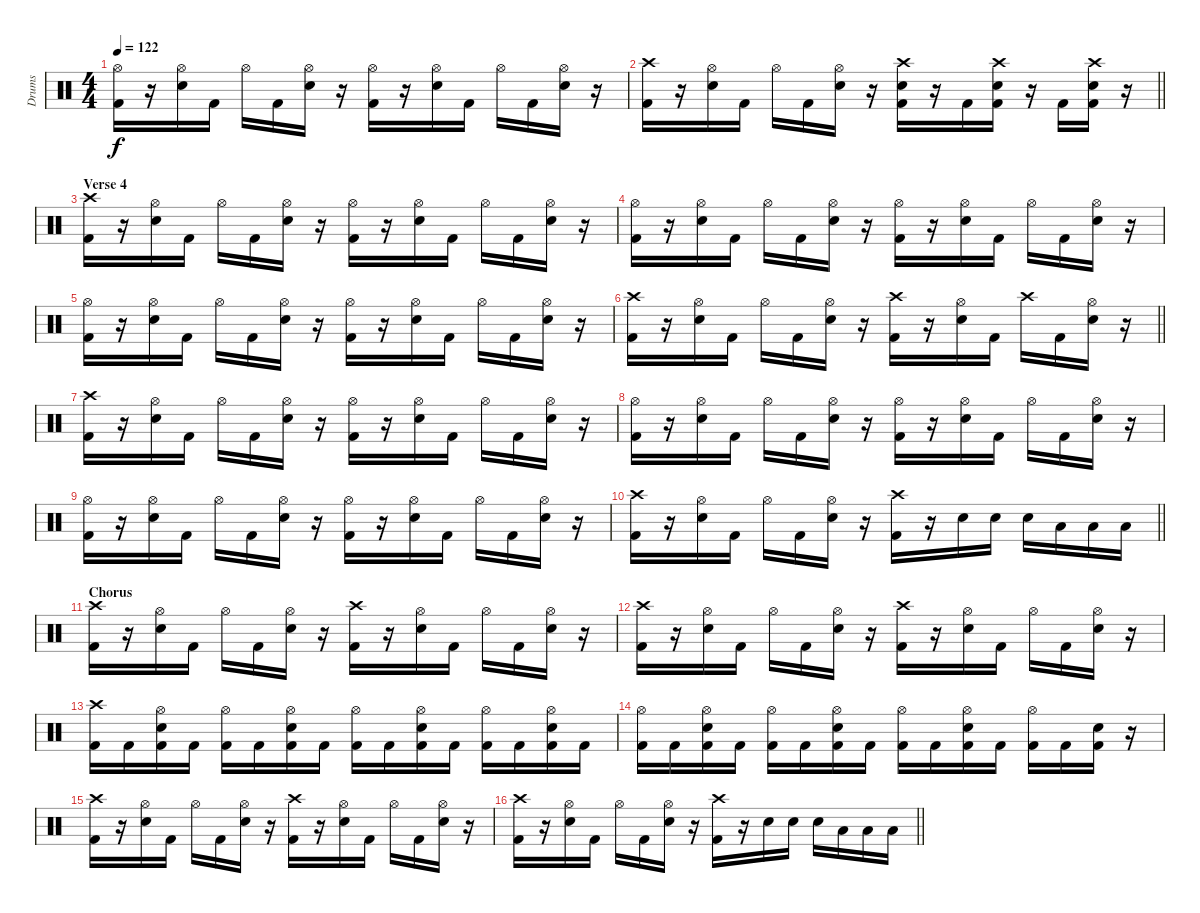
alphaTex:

\track ("Drums" "Drums") {instrument percussion}
\staff {score}
\articulation defaults
\ts (4 4)
\tempo 122
\clef neutral
\ks c
("Hi-Hat (open)" "Kick (hit) 2").16{dy f} r.16 ("Hi-Hat (open)" "Snare (hit) 2").16 "Kick (hit) 2".16 "Hi-Hat (open)".16 "Kick (hit) 2".16 ("Hi-Hat (open)" "Snare (hit) 2").16 r.16 ("Hi-Hat (open)" "Kick (hit) 2").16 r.16 ("Hi-Hat (open)" "Snare (hit) 2").16 "Kick (hit) 2".16 "Hi-Hat (open)".16 "Kick (hit) 2".16 ("Hi-Hat (open)" "Snare (hit) 2").16 r.16 |
\barLineRight lightlight
("Crash high (hit)" "Kick (hit) 2").16 r.16 ("Hi-Hat (open)" "Snare (hit) 2").16 "Kick (hit) 2".16 "Hi-Hat (open)".16 "Kick (hit) 2".16 ("Hi-Hat (open)" "Snare (hit) 2").16 r.16 ("Crash high (hit)" "Snare (hit) 2" "Kick (hit) 2").16 r.16 "Kick (hit) 2".16 ("Crash high (hit)" "Snare (hit) 2" "Kick (hit) 2").16 r.16 "Kick (hit) 2".16 ("Crash high (hit)" "Snare (hit) 2" "Kick (hit) 2").16 r.16 |
\section ("" "Verse 4")
("Crash high (hit)" "Kick (hit) 2").16 r.16 ("Hi-Hat (open)" "Snare (hit) 2").16 "Kick (hit) 2".16 "Hi-Hat (open)".16 "Kick (hit) 2".16 ("Hi-Hat (open)" "Snare (hit) 2").16 r.16 ("Hi-Hat (open)" "Kick (hit) 2").16 r.16 ("Hi-Hat (open)" "Snare (hit) 2").16 "Kick (hit) 2".16 "Hi-Hat (open)".16 "Kick (hit) 2".16 ("Hi-Hat (open)" "Snare (hit) 2").16 r.16 |
("Hi-Hat (open)" "Kick (hit) 2").16 r.16 ("Hi-Hat (open)" "Snare (hit) 2").16 "Kick (hit) 2".16 "Hi-Hat (open)".16 "Kick (hit) 2".16 ("Hi-Hat (open)" "Snare (hit) 2").16 r.16 ("Hi-Hat (open)" "Kick (hit) 2").16 r.16 ("Hi-Hat (open)" "Snare (hit) 2").16 "Kick (hit) 2".16 "Hi-Hat (open)".16 "Kick (hit) 2".16 ("Hi-Hat (open)" "Snare (hit) 2").16 r.16 |
("Hi-Hat (open)" "Kick (hit) 2").16 r.16 ("Hi-Hat (open)" "Snare (hit) 2").16 "Kick (hit) 2".16 "Hi-Hat (open)".16 "Kick (hit) 2".16 ("Hi-Hat (open)" "Snare (hit) 2").16 r.16 ("Hi-Hat (open)" "Kick (hit) 2").16 r.16 ("Hi-Hat (open)" "Snare (hit) 2").16 "Kick (hit) 2".16 "Hi-Hat (open)".16 "Kick (hit) 2".16 ("Hi-Hat (open)" "Snare (hit) 2").16 r.16 |
\barLineRight lightlight
("Crash high (hit)" "Kick (hit) 2").16 r.16 ("Hi-Hat (open)" "Snare (hit) 2").16 "Kick (hit) 2".16 "Hi-Hat (open)".16 "Kick (hit) 2".16 ("Hi-Hat (open)" "Snare (hit) 2").16 r.16 ("Crash high (hit)" "Kick (hit) 2").16 r.16 ("Hi-Hat (open)" "Snare (hit) 2").16 "Kick (hit) 2".16 "Crash high (hit)".16 "Kick (hit) 2".16 ("Hi-Hat (open)" "Snare (hit) 2").16 r.16 |
("Crash high (hit)" "Kick (hit) 2").16 r.16 ("Hi-Hat (open)" "Snare (hit) 2").16 "Kick (hit) 2".16 "Hi-Hat (open)".16 "Kick (hit) 2".16 ("Hi-Hat (open)" "Snare (hit) 2").16 r.16 ("Hi-Hat (open)" "Kick (hit) 2").16 r.16 ("Hi-Hat (open)" "Snare (hit) 2").16 "Kick (hit) 2".16 "Hi-Hat (open)".16 "Kick (hit) 2".16 ("Hi-Hat (open)" "Snare (hit) 2").16 r.16 |
("Hi-Hat (open)" "Kick (hit) 2").16 r.16 ("Hi-Hat (open)" "Snare (hit) 2").16 "Kick (hit) 2".16 "Hi-Hat (open)".16 "Kick (hit) 2".16 ("Hi-Hat (open)" "Snare (hit) 2").16 r.16 ("Hi-Hat (open)" "Kick (hit) 2").16 r.16 ("Hi-Hat (open)" "Snare (hit) 2").16 "Kick (hit) 2".16 "Hi-Hat (open)".16 "Kick (hit) 2".16 ("Hi-Hat (open)" "Snare (hit) 2").16 r.16 |
("Hi-Hat (open)" "Kick (hit) 2").16 r.16 ("Hi-Hat (open)" "Snare (hit) 2").16 "Kick (hit) 2".16 "Hi-Hat (open)".16 "Kick (hit) 2".16 ("Hi-Hat (open)" "Snare (hit) 2").16 r.16 ("Hi-Hat (open)" "Kick (hit) 2").16 r.16 ("Hi-Hat (open)" "Snare (hit) 2").16 "Kick (hit) 2".16 "Hi-Hat (open)".16 "Kick (hit) 2".16 ("Hi-Hat (open)" "Snare (hit) 2").16 r.16 |
\barLineRight lightlight
("Crash high (hit)" "Kick (hit) 2").16 r.16 ("Hi-Hat (open)" "Snare (hit) 2").16 "Kick (hit) 2".16 "Hi-Hat (open)".16 "Kick (hit) 2".16 ("Hi-Hat (open)" "Snare (hit) 2").16 r.16 ("Crash high (hit)" "Kick (hit) 2").16 r.16 "Snare (hit) 2".16 "Snare (hit) 2".16 "Snare (hit) 2".16 "Low Tom (hit)".16 "Low Tom (hit)".16 "Low Tom (hit)".16 |
\section ("" "Chorus")
("Crash high (hit)" "Kick (hit) 2").16 r.16 ("Hi-Hat (open)" "Snare (hit) 2").16 "Kick (hit) 2".16 "Hi-Hat (open)".16 "Kick (hit) 2".16 ("Hi-Hat (open)" "Snare (hit) 2").16 r.16 ("Crash high (hit)" "Kick (hit) 2").16 r.16 ("Hi-Hat (open)" "Snare (hit) 2").16 "Kick (hit) 2".16 "Hi-Hat (open)".16 "Kick (hit) 2".16 ("Hi-Hat (open)" "Snare (hit) 2").16 r.16 |
("Crash high (hit)" "Kick (hit) 2").16 r.16 ("Hi-Hat (open)" "Snare (hit) 2").16 "Kick (hit) 2".16 "Hi-Hat (open)".16 "Kick (hit) 2".16 ("Hi-Hat (open)" "Snare (hit) 2").16 r.16 ("Crash high (hit)" "Kick (hit) 2").16 r.16 ("Hi-Hat (open)" "Snare (hit) 2").16 "Kick (hit) 2".16 "Hi-Hat (open)".16 "Kick (hit) 2".16 ("Hi-Hat (open)" "Snare (hit) 2").16 r.16 |
("Crash high (hit)" "Kick (hit) 2").16 "Kick (hit) 2".16 ("Hi-Hat (open)" "Snare (hit) 2" "Kick (hit) 2").16 "Kick (hit) 2".16 ("Hi-Hat (open)" "Kick (hit) 2").16 "Kick (hit) 2".16 ("Hi-Hat (open)" "Snare (hit) 2" "Kick (hit) 2").16 "Kick (hit) 2".16 ("Hi-Hat (open)" "Kick (hit) 2").16 "Kick (hit) 2".16 ("Hi-Hat (open)" "Snare (hit) 2" "Kick (hit) 2").16 "Kick (hit) 2".16 ("Hi-Hat (open)" "Kick (hit) 2").16 "Kick (hit) 2".16 ("Hi-Hat (open)" "Snare (hit) 2" "Kick (hit) 2").16 "Kick (hit) 2".16 |
("Hi-Hat (open)" "Kick (hit) 2").16 "Kick (hit) 2".16 ("Hi-Hat (open)" "Snare (hit) 2" "Kick (hit) 2").16 "Kick (hit) 2".16 ("Hi-Hat (open)" "Kick (hit) 2").16 "Kick (hit) 2".16 ("Hi-Hat (open)" "Snare (hit) 2" "Kick (hit) 2").16 "Kick (hit) 2".16 ("Hi-Hat (open)" "Kick (hit) 2").16 "Kick (hit) 2".16 ("Hi-Hat (open)" "Snare (hit) 2" "Kick (hit) 2").16 "Kick (hit) 2".16 ("Hi-Hat (open)" "Kick (hit) 2").16 "Kick (hit) 2".16 ("Snare (hit) 2" "Kick (hit) 2").16 r.16 |
("Crash high (hit)" "Kick (hit) 2").16 r.16 ("Hi-Hat (open)" "Snare (hit) 2").16 "Kick (hit) 2".16 "Hi-Hat (open)".16 "Kick (hit) 2".16 ("Hi-Hat (open)" "Snare (hit) 2").16 r.16 ("Crash high (hit)" "Kick (hit) 2").16 r.16 ("Hi-Hat (open)" "Snare (hit) 2").16 "Kick (hit) 2".16 "Hi-Hat (open)".16 "Kick (hit) 2".16 ("Hi-Hat (open)" "Snare (hit) 2").16 r.16 |
\barLineRight lightlight
("Crash high (hit)" "Kick (hit) 2").16 r.16 ("Hi-Hat (open)" "Snare (hit) 2").16 "Kick (hit) 2".16 "Hi-Hat (open)".16 "Kick (hit) 2".16 ("Hi-Hat (open)" "Snare (hit) 2").16 r.16 ("Crash high (hit)" "Kick (hit) 2").16 r.16 "Snare (hit) 2".16 "Snare (hit) 2".16 "Snare (hit) 2".16 "Low Tom (hit)".16 "Low Tom (hit)".16 "Low Tom (hit)".16
